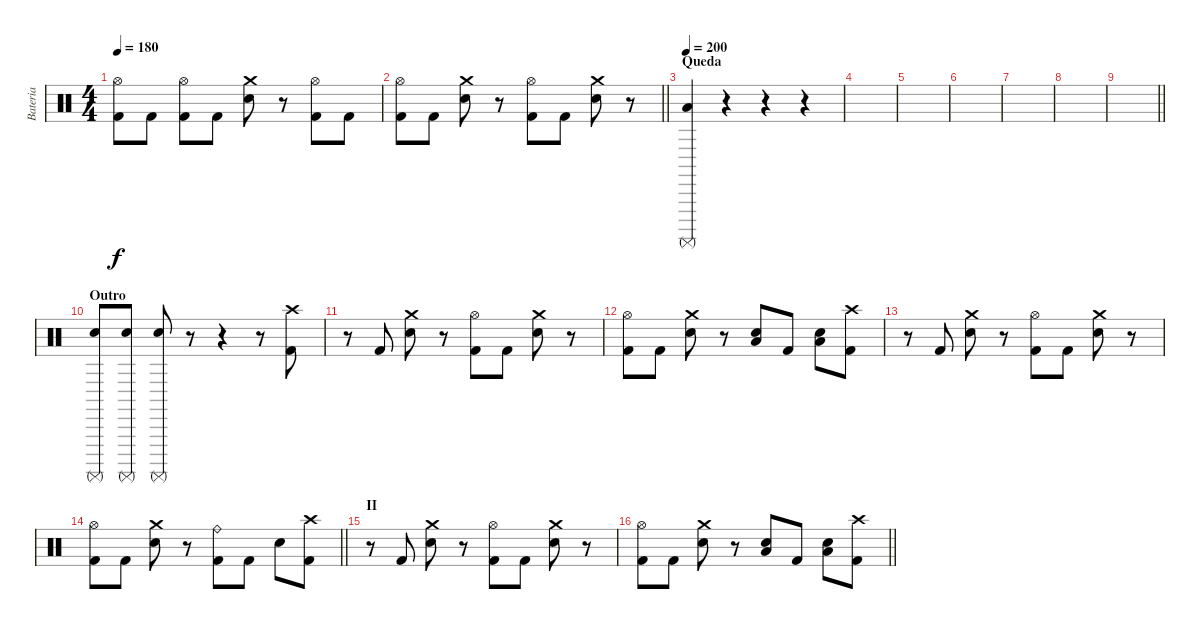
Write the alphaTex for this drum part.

\track ("Bateria" "Bateria") {instrument percussion}
\staff {score}
\articulation defaults
\ts (4 4)
\tempo 180
\clef neutral
\ks c
("Kick (hit) 2" "Hi-Hat (open)").8{dy f} "Kick (hit) 2".8 ("Kick (hit) 2" "Hi-Hat (open)").8 "Kick (hit) 2".8 ("Electric Snare (hit)" "Crash medium (hit)").8 r.8 ("Kick (hit) 2" "Hi-Hat (open)").8 "Kick (hit) 2".8 |
\barLineRight lightlight
("Kick (hit) 2" "Hi-Hat (open)").8 "Kick (hit) 2".8 ("Electric Snare (hit)" "Crash medium (hit)").8 r.8 ("Kick (hit) 2" "Hi-Hat (open)").8 "Kick (hit) 2".8 ("Electric Snare (hit)" "Crash medium (hit)").8 r.8 |
\section ("" "Queda")
\tempo 200
("Low Tom (hit)" "Surdo (mute)").4 r.4 r.4 r.4 |
|
|
|
|
|
\barLineRight lightlight
|
\section ("" "Outro")
("Electric Snare (hit)" "Surdo (mute)").8 ("Electric Snare (hit)" "Surdo (mute)").8 ("Electric Snare (hit)" "Surdo (mute)").8 r.8 r.4 r.8 ("Kick (hit) 2" "Crash high (hit)").8 |
r.8 "Kick (hit) 2".8 ("Electric Snare (hit)" "Crash medium (hit)").8 r.8 ("Kick (hit) 2" "Hi-Hat (open)").8 "Kick (hit) 2".8 ("Electric Snare (hit)" "Crash medium (hit)").8 r.8 |
("Kick (hit) 2" "Hi-Hat (open)").8 "Kick (hit) 2".8 ("Electric Snare (hit)" "Crash medium (hit)").8 r.8 ("Electric Snare (hit)" "Low Tom (hit)").8 "Kick (hit) 2".8 ("Electric Snare (hit)" "Low Tom (hit)").8 ("Kick (hit) 2" "Crash high (hit)").8 |
r.8 "Kick (hit) 2".8 ("Electric Snare (hit)" "Crash medium (hit)").8 r.8 ("Kick (hit) 2" "Hi-Hat (open)").8 "Kick (hit) 2".8 ("Electric Snare (hit)" "Crash medium (hit)").8 r.8 |
\barLineRight lightlight
("Kick (hit) 2" "Hi-Hat (open)").8 "Kick (hit) 2".8 ("Electric Snare (hit)" "Crash medium (hit)").8 r.8 ("Kick (hit) 2" "Ride (bell)").8 "Kick (hit) 2".8 "Electric Snare (hit)".8 ("Kick (hit) 2" "Crash high (hit)").8 |
\section ("" "II")
r.8 "Kick (hit) 2".8 ("Electric Snare (hit)" "Crash medium (hit)").8 r.8 ("Kick (hit) 2" "Hi-Hat (open)").8 "Kick (hit) 2".8 ("Electric Snare (hit)" "Crash medium (hit)").8 r.8 |
\barLineRight lightlight
("Kick (hit) 2" "Hi-Hat (open)").8 "Kick (hit) 2".8 ("Electric Snare (hit)" "Crash medium (hit)").8 r.8 ("Electric Snare (hit)" "Low Tom (hit)").8 "Kick (hit) 2".8 ("Electric Snare (hit)" "Low Tom (hit)").8 ("Kick (hit) 2" "Crash high (hit)").8
